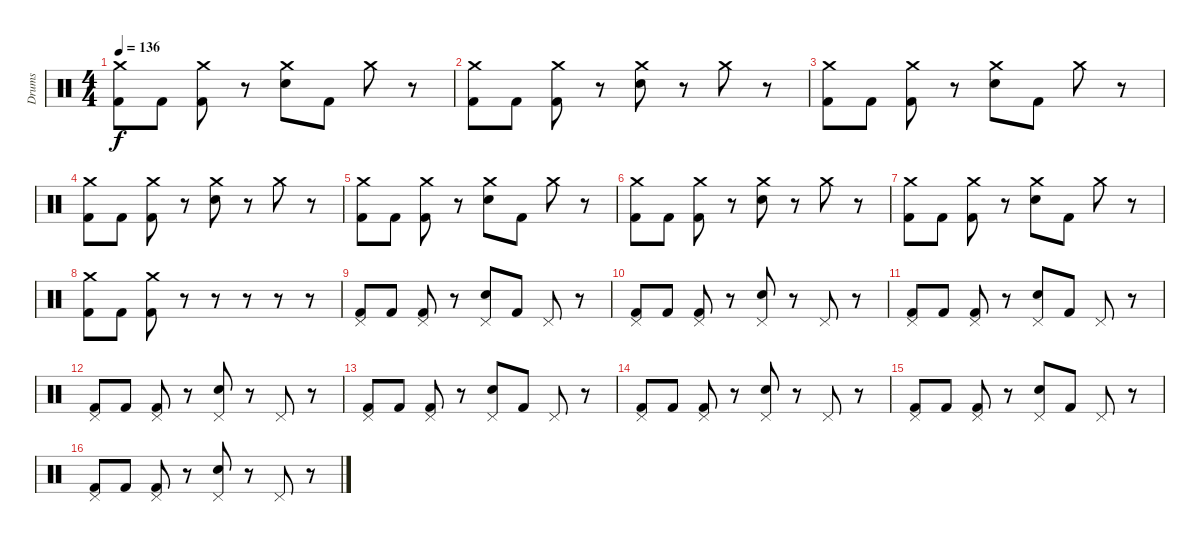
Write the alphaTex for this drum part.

\track ("Drums" "Drums") {instrument percussion}
\staff {score}
\articulation defaults
\ts (4 4)
\tempo 136
\clef neutral
\ks c
("Crash medium (hit)" "Kick (hit) 2").8{dy f} "Kick (hit) 2".8 ("Crash medium (hit)" "Kick (hit) 2").8 r.8 ("Crash medium (hit)" "Electric Snare (hit)").8 "Kick (hit) 2".8 "Crash medium (hit)".8 r.8 |
("Crash medium (hit)" "Kick (hit) 2").8 "Kick (hit) 2".8 ("Crash medium (hit)" "Kick (hit) 2").8 r.8 ("Crash medium (hit)" "Electric Snare (hit)").8 r.8 "Crash medium (hit)".8 r.8 |
("Crash medium (hit)" "Kick (hit) 2").8 "Kick (hit) 2".8 ("Crash medium (hit)" "Kick (hit) 2").8 r.8 ("Crash medium (hit)" "Electric Snare (hit)").8 "Kick (hit) 2".8 "Crash medium (hit)".8 r.8 |
("Crash medium (hit)" "Kick (hit) 2").8 "Kick (hit) 2".8 ("Crash medium (hit)" "Kick (hit) 2").8 r.8 ("Crash medium (hit)" "Electric Snare (hit)").8 r.8 "Crash medium (hit)".8 r.8 |
("Crash medium (hit)" "Kick (hit) 2").8 "Kick (hit) 2".8 ("Crash medium (hit)" "Kick (hit) 2").8 r.8 ("Crash medium (hit)" "Electric Snare (hit)").8 "Kick (hit) 2".8 "Crash medium (hit)".8 r.8 |
("Crash medium (hit)" "Kick (hit) 2").8 "Kick (hit) 2".8 ("Crash medium (hit)" "Kick (hit) 2").8 r.8 ("Crash medium (hit)" "Electric Snare (hit)").8 r.8 "Crash medium (hit)".8 r.8 |
("Crash medium (hit)" "Kick (hit) 2").8 "Kick (hit) 2".8 ("Crash medium (hit)" "Kick (hit) 2").8 r.8 ("Crash medium (hit)" "Electric Snare (hit)").8 "Kick (hit) 2".8 "Crash medium (hit)".8 r.8 |
("Crash medium (hit)" "Kick (hit) 2").8 "Kick (hit) 2".8 ("Crash medium (hit)" "Kick (hit) 2").8 r.8 r.8 r.8 r.8 r.8 |
("Pedal Hi-Hat (hit)" "Kick (hit) 2").8 "Kick (hit) 2".8 ("Pedal Hi-Hat (hit)" "Kick (hit) 2").8 r.8 ("Pedal Hi-Hat (hit)" "Electric Snare (hit)").8 "Kick (hit) 2".8 "Pedal Hi-Hat (hit)".8 r.8 |
("Pedal Hi-Hat (hit)" "Kick (hit) 2").8 "Kick (hit) 2".8 ("Pedal Hi-Hat (hit)" "Kick (hit) 2").8 r.8 ("Pedal Hi-Hat (hit)" "Electric Snare (hit)").8 r.8 "Pedal Hi-Hat (hit)".8 r.8 |
("Pedal Hi-Hat (hit)" "Kick (hit) 2").8 "Kick (hit) 2".8 ("Pedal Hi-Hat (hit)" "Kick (hit) 2").8 r.8 ("Pedal Hi-Hat (hit)" "Electric Snare (hit)").8 "Kick (hit) 2".8 "Pedal Hi-Hat (hit)".8 r.8 |
("Pedal Hi-Hat (hit)" "Kick (hit) 2").8 "Kick (hit) 2".8 ("Pedal Hi-Hat (hit)" "Kick (hit) 2").8 r.8 ("Pedal Hi-Hat (hit)" "Electric Snare (hit)").8 r.8 "Pedal Hi-Hat (hit)".8 r.8 |
("Pedal Hi-Hat (hit)" "Kick (hit) 2").8 "Kick (hit) 2".8 ("Pedal Hi-Hat (hit)" "Kick (hit) 2").8 r.8 ("Pedal Hi-Hat (hit)" "Electric Snare (hit)").8 "Kick (hit) 2".8 "Pedal Hi-Hat (hit)".8 r.8 |
("Pedal Hi-Hat (hit)" "Kick (hit) 2").8 "Kick (hit) 2".8 ("Pedal Hi-Hat (hit)" "Kick (hit) 2").8 r.8 ("Pedal Hi-Hat (hit)" "Electric Snare (hit)").8 r.8 "Pedal Hi-Hat (hit)".8 r.8 |
("Pedal Hi-Hat (hit)" "Kick (hit) 2").8 "Kick (hit) 2".8 ("Pedal Hi-Hat (hit)" "Kick (hit) 2").8 r.8 ("Pedal Hi-Hat (hit)" "Electric Snare (hit)").8 "Kick (hit) 2".8 "Pedal Hi-Hat (hit)".8 r.8 |
("Pedal Hi-Hat (hit)" "Kick (hit) 2").8 "Kick (hit) 2".8 ("Pedal Hi-Hat (hit)" "Kick (hit) 2").8 r.8 ("Pedal Hi-Hat (hit)" "Electric Snare (hit)").8 r.8 "Pedal Hi-Hat (hit)".8 r.8
